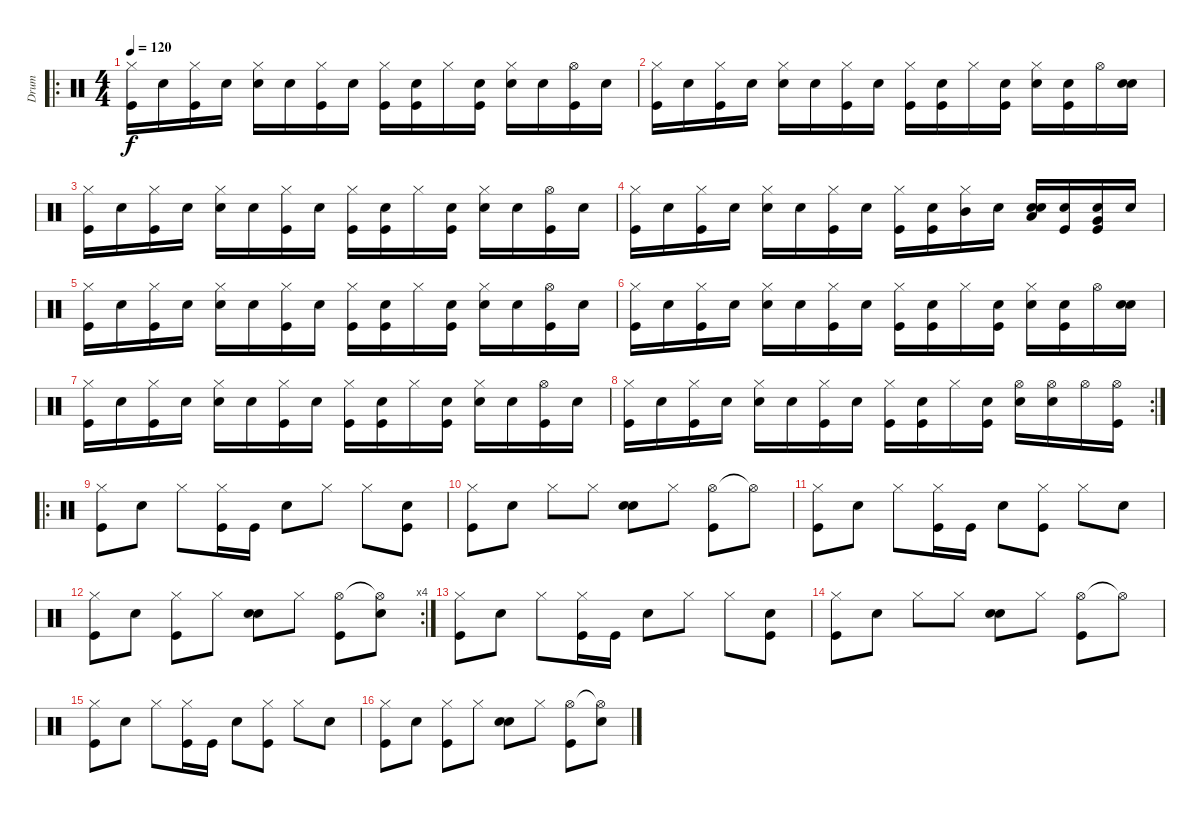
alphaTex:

\track ("Drum" "Drum") {instrument percussion}
\staff {score}
\articulation defaults
\ro
\ts (4 4)
\tempo 120
\clef neutral
\ks c
("Hi-Hat (closed)" "Kick (hit)").16{dy f} "Snare (hit)".16 ("Hi-Hat (closed)" "Kick (hit)").16 "Snare (hit)".16 ("Hi-Hat (closed)" "Electric Snare (hit)").16 "Snare (hit)".16 ("Hi-Hat (closed)" "Kick (hit)").16 "Snare (hit)".16 ("Hi-Hat (closed)" "Kick (hit)").16 ("Snare (hit)" "Kick (hit)").16 "Hi-Hat (closed)".16 ("Snare (hit)" "Kick (hit)").16 ("Hi-Hat (closed)" "Electric Snare (hit)").16 "Snare (hit)".16 ("Hi-Hat (open)" "Kick (hit)").16 "Snare (hit)".16 |
("Hi-Hat (closed)" "Kick (hit)").16 "Snare (hit)".16 ("Hi-Hat (closed)" "Kick (hit)").16 "Snare (hit)".16 ("Hi-Hat (closed)" "Electric Snare (hit)").16 "Snare (hit)".16 ("Hi-Hat (closed)" "Kick (hit)").16 "Snare (hit)".16 ("Hi-Hat (closed)" "Kick (hit)").16 ("Snare (hit)" "Kick (hit)").16 "Hi-Hat (closed)".16 ("Snare (hit)" "Kick (hit)").16 ("Hi-Hat (closed)" "Electric Snare (hit)").16 ("Snare (hit)" "Kick (hit)").16 "Hi-Hat (open)".16 ("Snare (hit)" "Electric Snare (hit)").16 |
("Hi-Hat (closed)" "Kick (hit)").16 "Snare (hit)".16 ("Hi-Hat (closed)" "Kick (hit)").16 "Snare (hit)".16 ("Hi-Hat (closed)" "Electric Snare (hit)").16 "Snare (hit)".16 ("Hi-Hat (closed)" "Kick (hit)").16 "Snare (hit)".16 ("Hi-Hat (closed)" "Kick (hit)").16 ("Snare (hit)" "Kick (hit)").16 "Hi-Hat (closed)".16 ("Snare (hit)" "Kick (hit)").16 ("Hi-Hat (closed)" "Electric Snare (hit)").16 "Snare (hit)".16 ("Hi-Hat (open)" "Kick (hit)").16 "Snare (hit)".16 |
("Hi-Hat (closed)" "Kick (hit)").16 "Snare (hit)".16 ("Hi-Hat (closed)" "Kick (hit)").16 "Snare (hit)".16 ("Hi-Hat (closed)" "Electric Snare (hit)").16 "Snare (hit)".16 ("Hi-Hat (closed)" "Kick (hit)").16 "Snare (hit)".16 ("Hi-Hat (closed)" "Kick (hit)").16 ("Snare (hit)" "Kick (hit)").16 ("Hi-Hat (closed)" "Mid Tom (hit)").16 "Snare (hit)".16 ("Snare (hit)" "Low Tom (hit)" "Electric Snare (hit)").16 ("Snare (hit)" "Kick (hit)").16 ("Snare (hit)" "Very Low Tom (hit)" "Kick (hit)").16 "Snare (hit)".16 |
("Hi-Hat (closed)" "Kick (hit)").16 "Snare (hit)".16 ("Hi-Hat (closed)" "Kick (hit)").16 "Snare (hit)".16 ("Hi-Hat (closed)" "Electric Snare (hit)").16 "Snare (hit)".16 ("Hi-Hat (closed)" "Kick (hit)").16 "Snare (hit)".16 ("Hi-Hat (closed)" "Kick (hit)").16 ("Snare (hit)" "Kick (hit)").16 "Hi-Hat (closed)".16 ("Snare (hit)" "Kick (hit)").16 ("Hi-Hat (closed)" "Electric Snare (hit)").16 "Snare (hit)".16 ("Hi-Hat (open)" "Kick (hit)").16 "Snare (hit)".16 |
("Hi-Hat (closed)" "Kick (hit)").16 "Snare (hit)".16 ("Hi-Hat (closed)" "Kick (hit)").16 "Snare (hit)".16 ("Hi-Hat (closed)" "Electric Snare (hit)").16 "Snare (hit)".16 ("Hi-Hat (closed)" "Kick (hit)").16 "Snare (hit)".16 ("Hi-Hat (closed)" "Kick (hit)").16 ("Snare (hit)" "Kick (hit)").16 "Hi-Hat (closed)".16 ("Snare (hit)" "Kick (hit)").16 ("Hi-Hat (closed)" "Electric Snare (hit)").16 ("Snare (hit)" "Kick (hit)").16 "Hi-Hat (open)".16 ("Snare (hit)" "Electric Snare (hit)").16 |
("Hi-Hat (closed)" "Kick (hit)").16 "Snare (hit)".16 ("Hi-Hat (closed)" "Kick (hit)").16 "Snare (hit)".16 ("Hi-Hat (closed)" "Electric Snare (hit)").16 "Snare (hit)".16 ("Hi-Hat (closed)" "Kick (hit)").16 "Snare (hit)".16 ("Hi-Hat (closed)" "Kick (hit)").16 ("Snare (hit)" "Kick (hit)").16 "Hi-Hat (closed)".16 ("Snare (hit)" "Kick (hit)").16 ("Hi-Hat (closed)" "Electric Snare (hit)").16 "Snare (hit)".16 ("Hi-Hat (open)" "Kick (hit)").16 "Snare (hit)".16 |
\rc 2
("Hi-Hat (closed)" "Kick (hit)").16 "Snare (hit)".16 ("Hi-Hat (closed)" "Kick (hit)").16 "Snare (hit)".16 ("Hi-Hat (closed)" "Electric Snare (hit)").16 "Snare (hit)".16 ("Hi-Hat (closed)" "Kick (hit)").16 "Snare (hit)".16 ("Hi-Hat (closed)" "Kick (hit)").16 ("Snare (hit)" "Kick (hit)").16 "Hi-Hat (closed)".16 ("Snare (hit)" "Kick (hit)").16 ("Hi-Hat (open)" "Electric Snare (hit)").16 ("Hi-Hat (open)" "Electric Snare (hit)").16 "Hi-Hat (open)".16 ("Hi-Hat (open)" "Kick (hit)").16 |
\ro
("Hi-Hat (closed)" "Kick (hit)").8 "Snare (hit)".8 "Hi-Hat (closed)".8 ("Hi-Hat (closed)" "Kick (hit)").16 "Kick (hit)".16 "Electric Snare (hit)".8 "Hi-Hat (closed)".8 "Hi-Hat (closed)".8 ("Snare (hit)" "Kick (hit)").8 |
("Hi-Hat (closed)" "Kick (hit)").8 "Snare (hit)".8 "Hi-Hat (closed)".8 "Hi-Hat (closed)".8 ("Snare (hit)" "Electric Snare (hit)").8 "Hi-Hat (closed)".8 ("Hi-Hat (open)" "Kick (hit)").8 "Hi-Hat (open)"{t}.8 |
("Hi-Hat (closed)" "Kick (hit)").8 "Snare (hit)".8 "Hi-Hat (closed)".8 ("Hi-Hat (closed)" "Kick (hit)").16 "Kick (hit)".16 "Electric Snare (hit)".8 ("Hi-Hat (closed)" "Kick (hit)").8 "Hi-Hat (closed)".8 "Snare (hit)".8 |
\rc 4
("Hi-Hat (closed)" "Kick (hit)").8 "Snare (hit)".8 ("Hi-Hat (closed)" "Kick (hit)").8 "Hi-Hat (closed)".8 ("Snare (hit)" "Electric Snare (hit)").8 "Hi-Hat (closed)".8 ("Hi-Hat (open)" "Kick (hit)").8 ("Hi-Hat (open)"{t} "Electric Snare (hit)").8 |
("Hi-Hat (closed)" "Kick (hit)").8 "Snare (hit)".8 "Hi-Hat (closed)".8 ("Hi-Hat (closed)" "Kick (hit)").16 "Kick (hit)".16 "Electric Snare (hit)".8 "Hi-Hat (closed)".8 "Hi-Hat (closed)".8 ("Snare (hit)" "Kick (hit)").8 |
("Hi-Hat (closed)" "Kick (hit)").8 "Snare (hit)".8 "Hi-Hat (closed)".8 "Hi-Hat (closed)".8 ("Snare (hit)" "Electric Snare (hit)").8 "Hi-Hat (closed)".8 ("Hi-Hat (open)" "Kick (hit)").8 "Hi-Hat (open)"{t}.8 |
("Hi-Hat (closed)" "Kick (hit)").8 "Snare (hit)".8 "Hi-Hat (closed)".8 ("Hi-Hat (closed)" "Kick (hit)").16 "Kick (hit)".16 "Electric Snare (hit)".8 ("Hi-Hat (closed)" "Kick (hit)").8 "Hi-Hat (closed)".8 "Snare (hit)".8 |
("Hi-Hat (closed)" "Kick (hit)").8 "Snare (hit)".8 ("Hi-Hat (closed)" "Kick (hit)").8 "Hi-Hat (closed)".8 ("Snare (hit)" "Electric Snare (hit)").8 "Hi-Hat (closed)".8 ("Hi-Hat (open)" "Kick (hit)").8 ("Hi-Hat (open)"{t} "Electric Snare (hit)").8
